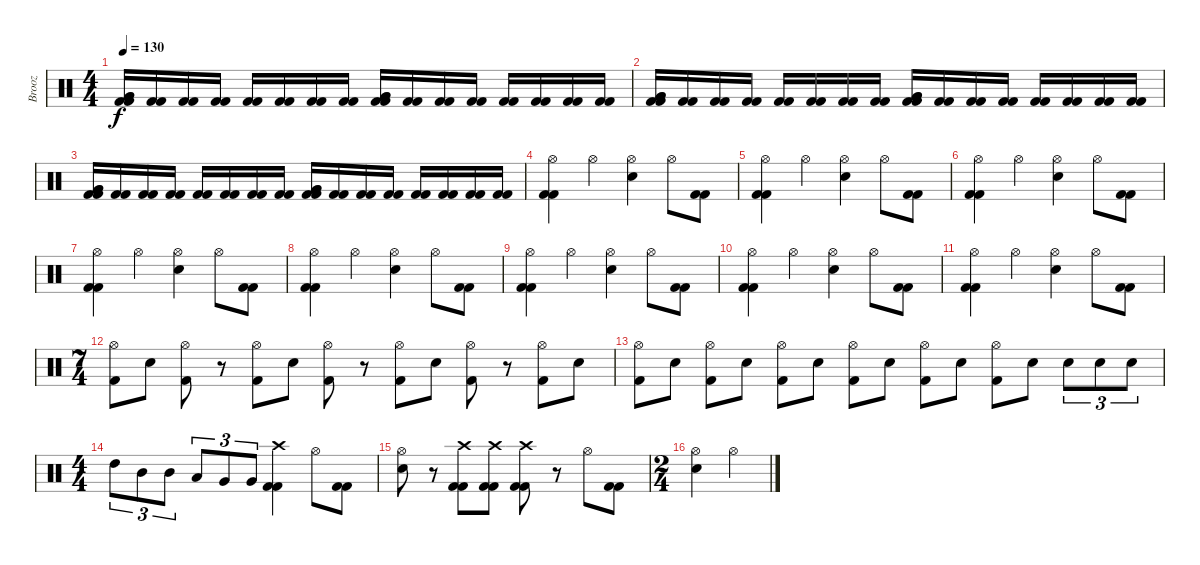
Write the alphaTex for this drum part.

\track ("Brooz" "Brooz") {instrument percussion}
\staff {score}
\articulation defaults
\ts (4 4)
\tempo 130
\clef neutral
\ks c
("Very Low Tom (hit)" "Very Low Tom (hit)" "Kick (hit) 2" "Kick (hit) 2").16{dy f} ("Kick (hit) 2" "Kick (hit) 2").16 ("Kick (hit) 2" "Kick (hit) 2").16 ("Kick (hit) 2" "Kick (hit) 2").16 ("Kick (hit) 2" "Kick (hit) 2").16 ("Kick (hit) 2" "Kick (hit) 2").16 ("Kick (hit) 2" "Kick (hit) 2").16 ("Kick (hit) 2" "Kick (hit) 2").16 ("Very Low Tom (hit)" "Very Low Tom (hit)" "Kick (hit) 2" "Kick (hit) 2").16 ("Kick (hit) 2" "Kick (hit) 2").16 ("Kick (hit) 2" "Kick (hit) 2").16 ("Kick (hit) 2" "Kick (hit) 2").16 ("Kick (hit) 2" "Kick (hit) 2").16 ("Kick (hit) 2" "Kick (hit) 2").16 ("Kick (hit) 2" "Kick (hit) 2").16 ("Kick (hit) 2" "Kick (hit) 2").16 |
("Very Low Tom (hit)" "Very Low Tom (hit)" "Kick (hit) 2" "Kick (hit) 2").16 ("Kick (hit) 2" "Kick (hit) 2").16 ("Kick (hit) 2" "Kick (hit) 2").16 ("Kick (hit) 2" "Kick (hit) 2").16 ("Kick (hit) 2" "Kick (hit) 2").16 ("Kick (hit) 2" "Kick (hit) 2").16 ("Kick (hit) 2" "Kick (hit) 2").16 ("Kick (hit) 2" "Kick (hit) 2").16 ("Very Low Tom (hit)" "Very Low Tom (hit)" "Kick (hit) 2" "Kick (hit) 2").16 ("Kick (hit) 2" "Kick (hit) 2").16 ("Kick (hit) 2" "Kick (hit) 2").16 ("Kick (hit) 2" "Kick (hit) 2").16 ("Kick (hit) 2" "Kick (hit) 2").16 ("Kick (hit) 2" "Kick (hit) 2").16 ("Kick (hit) 2" "Kick (hit) 2").16 ("Kick (hit) 2" "Kick (hit) 2").16 |
("Very Low Tom (hit)" "Very Low Tom (hit)" "Kick (hit) 2" "Kick (hit) 2").16 ("Kick (hit) 2" "Kick (hit) 2").16 ("Kick (hit) 2" "Kick (hit) 2").16 ("Kick (hit) 2" "Kick (hit) 2").16 ("Kick (hit) 2" "Kick (hit) 2").16 ("Kick (hit) 2" "Kick (hit) 2").16 ("Kick (hit) 2" "Kick (hit) 2").16 ("Kick (hit) 2" "Kick (hit) 2").16 ("Very Low Tom (hit)" "Very Low Tom (hit)" "Kick (hit) 2" "Kick (hit) 2").16 ("Kick (hit) 2" "Kick (hit) 2").16 ("Kick (hit) 2" "Kick (hit) 2").16 ("Kick (hit) 2" "Kick (hit) 2").16 ("Kick (hit) 2" "Kick (hit) 2").16 ("Kick (hit) 2" "Kick (hit) 2").16 ("Kick (hit) 2" "Kick (hit) 2").16 ("Kick (hit) 2" "Kick (hit) 2").16 |
("Hi-Hat (open)" "Kick (hit) 2" "Kick (hit) 2").4 "Hi-Hat (open)".4 ("Hi-Hat (open)" "Snare (hit) 2").4 "Hi-Hat (open)".8 ("Kick (hit) 2" "Kick (hit) 2").8 |
("Hi-Hat (open)" "Kick (hit) 2" "Kick (hit) 2").4 "Hi-Hat (open)".4 ("Hi-Hat (open)" "Snare (hit) 2").4 "Hi-Hat (open)".8 ("Kick (hit) 2" "Kick (hit) 2").8 |
("Hi-Hat (open)" "Kick (hit) 2" "Kick (hit) 2").4 "Hi-Hat (open)".4 ("Hi-Hat (open)" "Snare (hit) 2").4 "Hi-Hat (open)".8 ("Kick (hit) 2" "Kick (hit) 2").8 |
("Hi-Hat (open)" "Kick (hit) 2" "Kick (hit) 2").4 "Hi-Hat (open)".4 ("Hi-Hat (open)" "Snare (hit) 2").4 "Hi-Hat (open)".8 ("Kick (hit) 2" "Kick (hit) 2").8 |
("Hi-Hat (open)" "Kick (hit) 2" "Kick (hit) 2").4 "Hi-Hat (open)".4 ("Hi-Hat (open)" "Snare (hit) 2").4 "Hi-Hat (open)".8 ("Kick (hit) 2" "Kick (hit) 2").8 |
("Hi-Hat (open)" "Kick (hit) 2" "Kick (hit) 2").4 "Hi-Hat (open)".4 ("Hi-Hat (open)" "Snare (hit) 2").4 "Hi-Hat (open)".8 ("Kick (hit) 2" "Kick (hit) 2").8 |
("Hi-Hat (open)" "Kick (hit) 2" "Kick (hit) 2").4 "Hi-Hat (open)".4 ("Hi-Hat (open)" "Snare (hit) 2").4 "Hi-Hat (open)".8 ("Kick (hit) 2" "Kick (hit) 2").8 |
("Hi-Hat (open)" "Kick (hit) 2" "Kick (hit) 2").4 "Hi-Hat (open)".4 ("Hi-Hat (open)" "Snare (hit) 2").4 "Hi-Hat (open)".8 ("Kick (hit) 2" "Kick (hit) 2").8 |
\ts (7 4)
("Hi-Hat (open)" "Kick (hit) 2").8 "Snare (hit) 2".8 ("Hi-Hat (open)" "Kick (hit) 2").8 r.8 ("Hi-Hat (open)" "Kick (hit) 2").8 "Snare (hit) 2".8 ("Hi-Hat (open)" "Kick (hit) 2").8 r.8 ("Hi-Hat (open)" "Kick (hit) 2").8 "Snare (hit) 2".8 ("Hi-Hat (open)" "Kick (hit) 2").8 r.8 ("Hi-Hat (open)" "Kick (hit) 2").8 "Snare (hit) 2".8 |
("Hi-Hat (open)" "Kick (hit) 2").8 "Snare (hit) 2".8 ("Hi-Hat (open)" "Kick (hit) 2").8 "Snare (hit) 2".8 ("Hi-Hat (open)" "Kick (hit) 2").8 "Snare (hit) 2".8 ("Hi-Hat (open)" "Kick (hit) 2").8 "Snare (hit) 2".8 ("Hi-Hat (open)" "Kick (hit) 2").8 "Snare (hit) 2".8 ("Hi-Hat (open)" "Kick (hit) 2").8 "Snare (hit) 2".8 "Snare (hit) 2".8{tu (3 2)} "Snare (hit) 2".8{tu (3 2)} "Snare (hit) 2".8{tu (3 2)} |
\ts (4 4)
"High Tom (hit)".8{tu (3 2)} "Mid Tom (hit)".8{tu (3 2)} "Mid Tom (hit)".8{tu (3 2)} "Low Tom (hit)".8{tu (3 2)} "Very Low Tom (hit)".8{tu (3 2)} "Very Low Tom (hit)".8{tu (3 2)} ("Crash high (hit)" "Kick (hit) 2" "Kick (hit) 2").4 "Hi-Hat (open)".8 ("Kick (hit) 2" "Kick (hit) 2").8 |
("Hi-Hat (open)" "Snare (hit) 2").8 r.8 ("Crash high (hit)" "Kick (hit) 2" "Kick (hit) 2").8 ("Crash high (hit)" "Kick (hit) 2" "Kick (hit) 2").8 ("Crash high (hit)" "Kick (hit) 2" "Kick (hit) 2").8 r.8 "Hi-Hat (open)".8 ("Kick (hit) 2" "Kick (hit) 2").8 |
\ts (2 4)
("Hi-Hat (open)" "Snare (hit) 2").4 "Hi-Hat (open)".4
